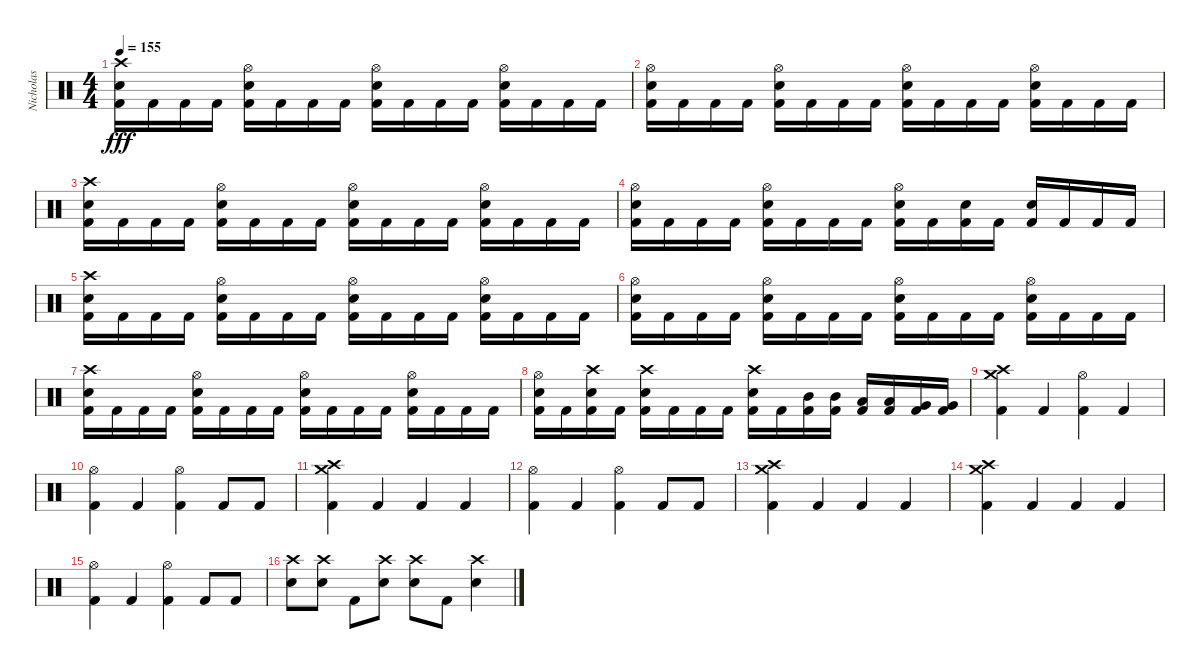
\track ("Nicholas" "Nicholas") {instrument percussion}
\staff {score}
\articulation defaults
\ts (4 4)
\tempo 155
\clef neutral
\ks c
("Crash high (hit)" "Electric Snare (hit)" "Kick (hit) 2").16{dy fff} "Kick (hit) 2".16 "Kick (hit) 2".16 "Kick (hit) 2".16 ("Hi-Hat (open)" "Electric Snare (hit)" "Kick (hit) 2").16 "Kick (hit) 2".16 "Kick (hit) 2".16 "Kick (hit) 2".16 ("Hi-Hat (open)" "Electric Snare (hit)" "Kick (hit) 2").16 "Kick (hit) 2".16 "Kick (hit) 2".16 "Kick (hit) 2".16 ("Hi-Hat (open)" "Electric Snare (hit)" "Kick (hit) 2").16 "Kick (hit) 2".16 "Kick (hit) 2".16 "Kick (hit) 2".16 |
("Hi-Hat (open)" "Electric Snare (hit)" "Kick (hit) 2").16 "Kick (hit) 2".16 "Kick (hit) 2".16 "Kick (hit) 2".16 ("Hi-Hat (open)" "Electric Snare (hit)" "Kick (hit) 2").16 "Kick (hit) 2".16 "Kick (hit) 2".16 "Kick (hit) 2".16 ("Hi-Hat (open)" "Electric Snare (hit)" "Kick (hit) 2").16 "Kick (hit) 2".16 "Kick (hit) 2".16 "Kick (hit) 2".16 ("Hi-Hat (open)" "Electric Snare (hit)" "Kick (hit) 2").16 "Kick (hit) 2".16 "Kick (hit) 2".16 "Kick (hit) 2".16 |
("Crash high (hit)" "Electric Snare (hit)" "Kick (hit) 2").16 "Kick (hit) 2".16 "Kick (hit) 2".16 "Kick (hit) 2".16 ("Hi-Hat (open)" "Electric Snare (hit)" "Kick (hit) 2").16 "Kick (hit) 2".16 "Kick (hit) 2".16 "Kick (hit) 2".16 ("Hi-Hat (open)" "Electric Snare (hit)" "Kick (hit) 2").16 "Kick (hit) 2".16 "Kick (hit) 2".16 "Kick (hit) 2".16 ("Hi-Hat (open)" "Electric Snare (hit)" "Kick (hit) 2").16 "Kick (hit) 2".16 "Kick (hit) 2".16 "Kick (hit) 2".16 |
("Hi-Hat (open)" "Electric Snare (hit)" "Kick (hit) 2").16 "Kick (hit) 2".16 "Kick (hit) 2".16 "Kick (hit) 2".16 ("Hi-Hat (open)" "Electric Snare (hit)" "Kick (hit) 2").16 "Kick (hit) 2".16 "Kick (hit) 2".16 "Kick (hit) 2".16 ("Hi-Hat (open)" "Electric Snare (hit)" "Kick (hit) 2").16 "Kick (hit) 2".16 ("Electric Snare (hit)" "Kick (hit) 2").16 "Kick (hit) 2".16 ("Electric Snare (hit)" "Kick (hit) 2").16 "Kick (hit) 2".16 "Kick (hit) 2".16 "Kick (hit) 2".16 |
("Crash high (hit)" "Electric Snare (hit)" "Kick (hit) 2").16 "Kick (hit) 2".16 "Kick (hit) 2".16 "Kick (hit) 2".16 ("Hi-Hat (open)" "Electric Snare (hit)" "Kick (hit) 2").16 "Kick (hit) 2".16 "Kick (hit) 2".16 "Kick (hit) 2".16 ("Hi-Hat (open)" "Electric Snare (hit)" "Kick (hit) 2").16 "Kick (hit) 2".16 "Kick (hit) 2".16 "Kick (hit) 2".16 ("Hi-Hat (open)" "Electric Snare (hit)" "Kick (hit) 2").16 "Kick (hit) 2".16 "Kick (hit) 2".16 "Kick (hit) 2".16 |
("Hi-Hat (open)" "Electric Snare (hit)" "Kick (hit) 2").16 "Kick (hit) 2".16 "Kick (hit) 2".16 "Kick (hit) 2".16 ("Hi-Hat (open)" "Electric Snare (hit)" "Kick (hit) 2").16 "Kick (hit) 2".16 "Kick (hit) 2".16 "Kick (hit) 2".16 ("Hi-Hat (open)" "Electric Snare (hit)" "Kick (hit) 2").16 "Kick (hit) 2".16 "Kick (hit) 2".16 "Kick (hit) 2".16 ("Hi-Hat (open)" "Electric Snare (hit)" "Kick (hit) 2").16 "Kick (hit) 2".16 "Kick (hit) 2".16 "Kick (hit) 2".16 |
("Crash high (hit)" "Electric Snare (hit)" "Kick (hit) 2").16 "Kick (hit) 2".16 "Kick (hit) 2".16 "Kick (hit) 2".16 ("Hi-Hat (open)" "Electric Snare (hit)" "Kick (hit) 2").16 "Kick (hit) 2".16 "Kick (hit) 2".16 "Kick (hit) 2".16 ("Hi-Hat (open)" "Electric Snare (hit)" "Kick (hit) 2").16 "Kick (hit) 2".16 "Kick (hit) 2".16 "Kick (hit) 2".16 ("Hi-Hat (open)" "Electric Snare (hit)" "Kick (hit) 2").16 "Kick (hit) 2".16 "Kick (hit) 2".16 "Kick (hit) 2".16 |
("Hi-Hat (open)" "Electric Snare (hit)" "Kick (hit) 2").16 "Kick (hit) 2".16 ("Crash high (hit)" "Electric Snare (hit)" "Kick (hit) 2").16 "Kick (hit) 2".16 ("Crash high (hit)" "Electric Snare (hit)" "Kick (hit) 2").16 "Kick (hit) 2".16 "Kick (hit) 2".16 "Kick (hit) 2".16 ("Crash high (hit)" "Electric Snare (hit)" "Kick (hit) 2").16 "Kick (hit) 2".16 ("Mid Tom (hit)" "Kick (hit) 2").16 ("Mid Tom (hit)" "Kick (hit) 2").16 ("Low Tom (hit)" "Kick (hit) 2").16 ("Low Tom (hit)" "Kick (hit) 2").16 ("Very Low Tom (hit)" "Kick (hit) 2").16 ("Very Low Tom (hit)" "Kick (hit) 2").16 |
("Crash medium (hit)" "Crash high (hit)" "Kick (hit) 2").4 "Kick (hit) 2".4 ("Hi-Hat (open)" "Kick (hit) 2").4 "Kick (hit) 2".4 |
("Hi-Hat (open)" "Kick (hit) 2").4 "Kick (hit) 2".4 ("Hi-Hat (open)" "Kick (hit) 2").4 "Kick (hit) 2".8 "Kick (hit) 2".8 |
("Crash medium (hit)" "Crash high (hit)" "Kick (hit) 2").4 "Kick (hit) 2".4 "Kick (hit) 2".4 "Kick (hit) 2".4 |
("Hi-Hat (open)" "Kick (hit) 2").4 "Kick (hit) 2".4 ("Hi-Hat (open)" "Kick (hit) 2").4 "Kick (hit) 2".8 "Kick (hit) 2".8 |
("Crash medium (hit)" "Crash high (hit)" "Kick (hit) 2").4 "Kick (hit) 2".4 "Kick (hit) 2".4 "Kick (hit) 2".4 |
("Crash medium (hit)" "Crash high (hit)" "Kick (hit) 2").4 "Kick (hit) 2".4 "Kick (hit) 2".4 "Kick (hit) 2".4 |
("Hi-Hat (open)" "Kick (hit) 2").4 "Kick (hit) 2".4 ("Hi-Hat (open)" "Kick (hit) 2").4 "Kick (hit) 2".8 "Kick (hit) 2".8 |
("Crash high (hit)" "Electric Snare (hit)").8 ("Crash high (hit)" "Electric Snare (hit)").8 "Kick (hit) 2".8 ("Crash high (hit)" "Electric Snare (hit)").8 ("Crash high (hit)" "Electric Snare (hit)").8 "Kick (hit) 2".8 ("Crash high (hit)" "Electric Snare (hit)").4
